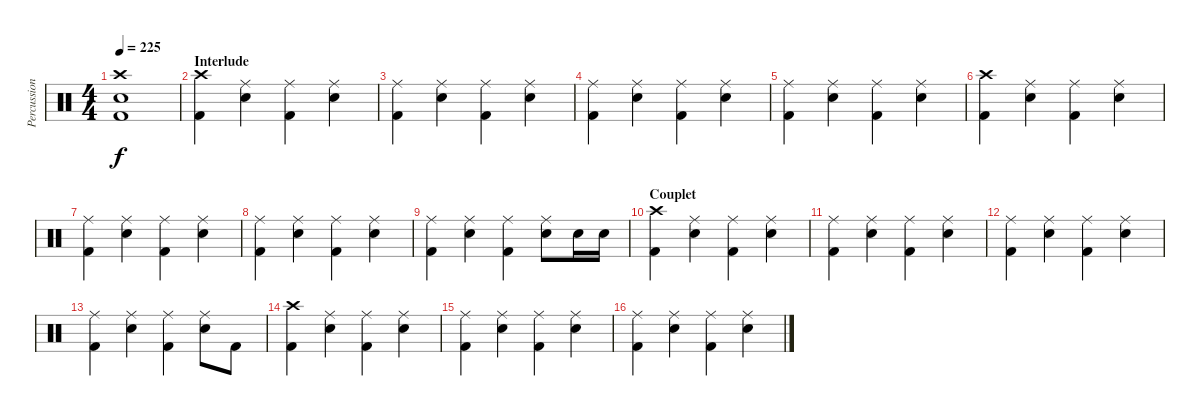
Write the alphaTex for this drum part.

\track ("Percussions" "Percussion") {instrument percussion}
\staff {score}
\articulation defaults
\ts (4 4)
\tempo 225
\clef neutral
\ks c
("Crash high (hit)" "Snare (hit) 2" "Kick (hit) 2").1{dy f} |
\section ("" "Interlude")
("Crash high (hit)" "Kick (hit) 2").4 ("Ride (middle)" "Snare (hit) 2").4 ("Ride (middle)" "Kick (hit) 2").4 ("Ride (middle)" "Snare (hit) 2").4 |
("Ride (middle)" "Kick (hit) 2").4 ("Ride (middle)" "Snare (hit) 2").4 ("Ride (middle)" "Kick (hit) 2").4 ("Ride (middle)" "Snare (hit) 2").4 |
("Ride (middle)" "Kick (hit) 2").4 ("Ride (middle)" "Snare (hit) 2").4 ("Ride (middle)" "Kick (hit) 2").4 ("Ride (middle)" "Snare (hit) 2").4 |
("Ride (middle)" "Kick (hit) 2").4 ("Ride (middle)" "Snare (hit) 2").4 ("Ride (middle)" "Kick (hit) 2").4 ("Ride (middle)" "Snare (hit) 2").4 |
("Crash high (hit)" "Kick (hit) 2").4 ("Ride (middle)" "Snare (hit) 2").4 ("Ride (middle)" "Kick (hit) 2").4 ("Ride (middle)" "Snare (hit) 2").4 |
("Ride (middle)" "Kick (hit) 2").4 ("Ride (middle)" "Snare (hit) 2").4 ("Ride (middle)" "Kick (hit) 2").4 ("Ride (middle)" "Snare (hit) 2").4 |
("Ride (middle)" "Kick (hit) 2").4 ("Ride (middle)" "Snare (hit) 2").4 ("Ride (middle)" "Kick (hit) 2").4 ("Ride (middle)" "Snare (hit) 2").4 |
("Ride (middle)" "Kick (hit) 2").4 ("Ride (middle)" "Snare (hit) 2").4 ("Ride (middle)" "Kick (hit) 2").4 ("Ride (middle)" "Snare (hit) 2").8 "Snare (hit) 2".16 "Snare (hit) 2".16 |
\section ("" "Couplet")
("Crash high (hit)" "Kick (hit) 2").4 ("Ride (middle)" "Snare (hit) 2").4 ("Ride (middle)" "Kick (hit) 2").4 ("Ride (middle)" "Snare (hit) 2").4 |
("Ride (middle)" "Kick (hit) 2").4 ("Ride (middle)" "Snare (hit) 2").4 ("Ride (middle)" "Kick (hit) 2").4 ("Ride (middle)" "Snare (hit) 2").4 |
("Ride (middle)" "Kick (hit) 2").4 ("Ride (middle)" "Snare (hit) 2").4 ("Ride (middle)" "Kick (hit) 2").4 ("Ride (middle)" "Snare (hit) 2").4 |
("Ride (middle)" "Kick (hit) 2").4 ("Ride (middle)" "Snare (hit) 2").4 ("Ride (middle)" "Kick (hit) 2").4 ("Ride (middle)" "Snare (hit) 2").8 "Kick (hit) 2".8 |
("Crash high (hit)" "Kick (hit) 2").4 ("Ride (middle)" "Snare (hit) 2").4 ("Ride (middle)" "Kick (hit) 2").4 ("Ride (middle)" "Snare (hit) 2").4 |
("Ride (middle)" "Kick (hit) 2").4 ("Ride (middle)" "Snare (hit) 2").4 ("Ride (middle)" "Kick (hit) 2").4 ("Ride (middle)" "Snare (hit) 2").4 |
("Ride (middle)" "Kick (hit) 2").4 ("Ride (middle)" "Snare (hit) 2").4 ("Ride (middle)" "Kick (hit) 2").4 ("Ride (middle)" "Snare (hit) 2").4
